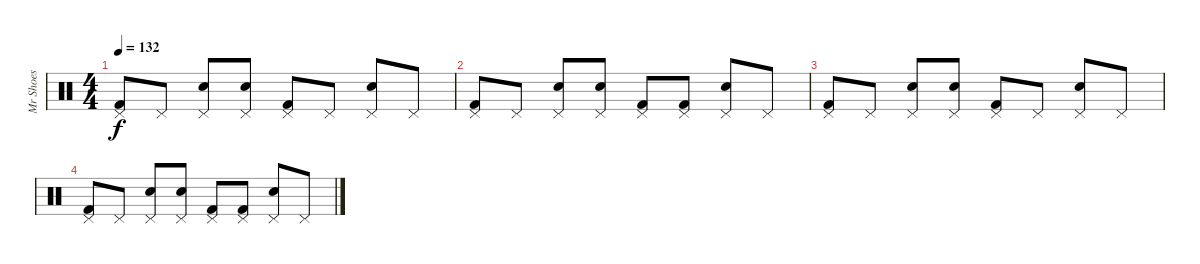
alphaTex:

\track ("Mr Shoes" "Mr Shoes") {instrument percussion}
\staff {score}
\articulation defaults
\ts (4 4)
\tempo 132
\clef neutral
\ks c
("Kick (hit) 2" "Pedal Hi-Hat (hit)").8{dy f} "Pedal Hi-Hat (hit)".8 ("Electric Snare (hit)" "Pedal Hi-Hat (hit)").8 ("Electric Snare (hit)" "Pedal Hi-Hat (hit)").8 ("Kick (hit) 2" "Pedal Hi-Hat (hit)").8 "Pedal Hi-Hat (hit)".8 ("Electric Snare (hit)" "Pedal Hi-Hat (hit)").8 "Pedal Hi-Hat (hit)".8 |
("Kick (hit) 2" "Pedal Hi-Hat (hit)").8 "Pedal Hi-Hat (hit)".8 ("Electric Snare (hit)" "Pedal Hi-Hat (hit)").8 ("Electric Snare (hit)" "Pedal Hi-Hat (hit)").8 ("Kick (hit) 2" "Pedal Hi-Hat (hit)").8 ("Kick (hit) 2" "Pedal Hi-Hat (hit)").8 ("Electric Snare (hit)" "Pedal Hi-Hat (hit)").8 "Pedal Hi-Hat (hit)".8 |
("Kick (hit) 2" "Pedal Hi-Hat (hit)").8 "Pedal Hi-Hat (hit)".8 ("Electric Snare (hit)" "Pedal Hi-Hat (hit)").8 ("Electric Snare (hit)" "Pedal Hi-Hat (hit)").8 ("Kick (hit) 2" "Pedal Hi-Hat (hit)").8 "Pedal Hi-Hat (hit)".8 ("Electric Snare (hit)" "Pedal Hi-Hat (hit)").8 "Pedal Hi-Hat (hit)".8 |
("Kick (hit) 2" "Pedal Hi-Hat (hit)").8 "Pedal Hi-Hat (hit)".8 ("Electric Snare (hit)" "Pedal Hi-Hat (hit)").8 ("Electric Snare (hit)" "Pedal Hi-Hat (hit)").8 ("Kick (hit) 2" "Pedal Hi-Hat (hit)").8 ("Kick (hit) 2" "Pedal Hi-Hat (hit)").8 ("Electric Snare (hit)" "Pedal Hi-Hat (hit)").8 "Pedal Hi-Hat (hit)".8
